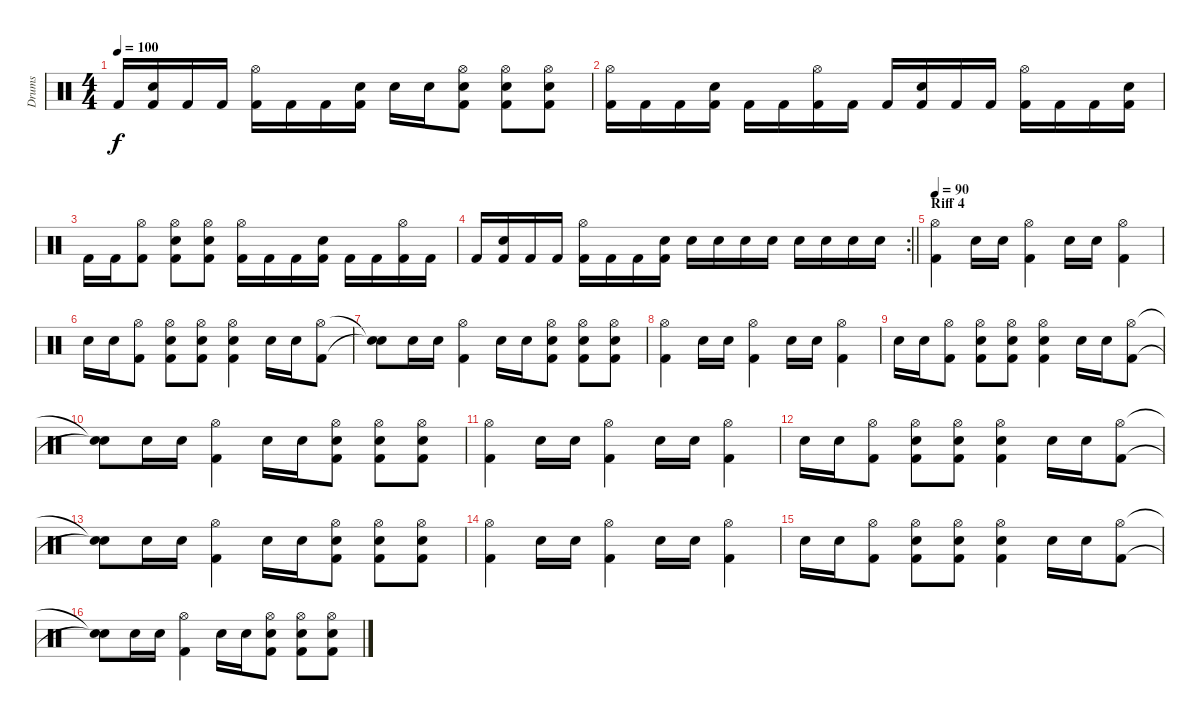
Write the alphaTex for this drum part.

\track ("Drums" "Drums") {instrument percussion}
\staff {score}
\articulation defaults
\ts (4 4)
\tempo 100
\clef neutral
\ks c "Kick (hit) 2".16{dy f}
("Snare (hit) 2" "Kick (hit) 2").16 "Kick (hit) 2".16 "Kick (hit) 2".16 ("Hi-Hat (open)" "Kick (hit) 2").16 "Kick (hit) 2".16 "Kick (hit) 2".16 ("Snare (hit) 2" "Kick (hit) 2").16 "Snare (hit) 2".16 "Snare (hit) 2".16 ("Hi-Hat (open)" "Snare (hit) 2" "Kick (hit) 2").8 ("Hi-Hat (open)" "Snare (hit) 2" "Kick (hit) 2").8 ("Hi-Hat (open)" "Snare (hit) 2" "Kick (hit) 2").8 |
("Hi-Hat (open)" "Kick (hit) 2").16 "Kick (hit) 2".16 "Kick (hit) 2".16 ("Snare (hit) 2" "Kick (hit) 2").16 "Kick (hit) 2".16 "Kick (hit) 2".16 ("Hi-Hat (open)" "Kick (hit) 2").16 "Kick (hit) 2".16 "Kick (hit) 2".16 ("Snare (hit) 2" "Kick (hit) 2").16 "Kick (hit) 2".16 "Kick (hit) 2".16 ("Hi-Hat (open)" "Kick (hit) 2").16 "Kick (hit) 2".16 "Kick (hit) 2".16 ("Snare (hit) 2" "Kick (hit) 2").16 |
"Kick (hit) 2".16 "Kick (hit) 2".16 ("Hi-Hat (open)" "Kick (hit) 2").8 ("Hi-Hat (open)" "Snare (hit) 2" "Kick (hit) 2").8 ("Hi-Hat (open)" "Snare (hit) 2" "Kick (hit) 2").8 ("Hi-Hat (open)" "Kick (hit) 2").16 "Kick (hit) 2".16 "Kick (hit) 2".16 ("Snare (hit) 2" "Kick (hit) 2").16 "Kick (hit) 2".16 "Kick (hit) 2".16 ("Hi-Hat (open)" "Kick (hit) 2").16 "Kick (hit) 2".16 |
\rc 2
\barLineRight lightlight "Kick (hit) 2".16
("Snare (hit) 2" "Kick (hit) 2").16 "Kick (hit) 2".16 "Kick (hit) 2".16 ("Hi-Hat (open)" "Kick (hit) 2").16 "Kick (hit) 2".16 "Kick (hit) 2".16 ("Snare (hit) 2" "Kick (hit) 2").16 "Snare (hit) 2".16 "Snare (hit) 2".16 "Snare (hit) 2".16 "Snare (hit) 2".16 "Snare (hit) 2".16 "Snare (hit) 2".16 "Snare (hit) 2".16 "Snare (hit) 2".16 |
\section ("" "Riff 4")
\tempo 90
("Hi-Hat (open)" "Kick (hit) 2").4 "Snare (hit) 2".16 "Snare (hit) 2".16 ("Hi-Hat (open)" "Kick (hit) 2").4 "Snare (hit) 2".16 "Snare (hit) 2".16 ("Hi-Hat (open)" "Kick (hit) 2").4 |
"Snare (hit) 2".16 "Snare (hit) 2".16 ("Hi-Hat (open)" "Kick (hit) 2").8 ("Hi-Hat (open)" "Snare (hit) 2" "Kick (hit) 2").8 ("Hi-Hat (open)" "Snare (hit) 2" "Kick (hit) 2").8 ("Hi-Hat (open)" "Snare (hit) 2" "Kick (hit) 2").4 "Snare (hit) 2".16 "Snare (hit) 2".16 ("Hi-Hat (open)" "Kick (hit) 2").8 |
("Snare (hit)"{t} "Snare (hit)"{t}).8 "Snare (hit) 2".16 "Snare (hit) 2".16 ("Hi-Hat (open)" "Kick (hit) 2").4 "Snare (hit) 2".16 "Snare (hit) 2".16 ("Hi-Hat (open)" "Snare (hit) 2" "Kick (hit) 2").8 ("Hi-Hat (open)" "Snare (hit) 2" "Kick (hit) 2").8 ("Hi-Hat (open)" "Snare (hit) 2" "Kick (hit) 2").8 |
("Hi-Hat (open)" "Kick (hit) 2").4 "Snare (hit) 2".16 "Snare (hit) 2".16 ("Hi-Hat (open)" "Kick (hit) 2").4 "Snare (hit) 2".16 "Snare (hit) 2".16 ("Hi-Hat (open)" "Kick (hit) 2").4 |
"Snare (hit) 2".16 "Snare (hit) 2".16 ("Hi-Hat (open)" "Kick (hit) 2").8 ("Hi-Hat (open)" "Snare (hit) 2" "Kick (hit) 2").8 ("Hi-Hat (open)" "Snare (hit) 2" "Kick (hit) 2").8 ("Hi-Hat (open)" "Snare (hit) 2" "Kick (hit) 2").4 "Snare (hit) 2".16 "Snare (hit) 2".16 ("Hi-Hat (open)" "Kick (hit) 2").8 |
("Snare (hit)"{t} "Snare (hit)"{t}).8 "Snare (hit) 2".16 "Snare (hit) 2".16 ("Hi-Hat (open)" "Kick (hit) 2").4 "Snare (hit) 2".16 "Snare (hit) 2".16 ("Hi-Hat (open)" "Snare (hit) 2" "Kick (hit) 2").8 ("Hi-Hat (open)" "Snare (hit) 2" "Kick (hit) 2").8 ("Hi-Hat (open)" "Snare (hit) 2" "Kick (hit) 2").8 |
("Hi-Hat (open)" "Kick (hit) 2").4 "Snare (hit) 2".16 "Snare (hit) 2".16 ("Hi-Hat (open)" "Kick (hit) 2").4 "Snare (hit) 2".16 "Snare (hit) 2".16 ("Hi-Hat (open)" "Kick (hit) 2").4 |
"Snare (hit) 2".16 "Snare (hit) 2".16 ("Hi-Hat (open)" "Kick (hit) 2").8 ("Hi-Hat (open)" "Snare (hit) 2" "Kick (hit) 2").8 ("Hi-Hat (open)" "Snare (hit) 2" "Kick (hit) 2").8 ("Hi-Hat (open)" "Snare (hit) 2" "Kick (hit) 2").4 "Snare (hit) 2".16 "Snare (hit) 2".16 ("Hi-Hat (open)" "Kick (hit) 2").8 |
("Snare (hit)"{t} "Snare (hit)"{t}).8 "Snare (hit) 2".16 "Snare (hit) 2".16 ("Hi-Hat (open)" "Kick (hit) 2").4 "Snare (hit) 2".16 "Snare (hit) 2".16 ("Hi-Hat (open)" "Snare (hit) 2" "Kick (hit) 2").8 ("Hi-Hat (open)" "Snare (hit) 2" "Kick (hit) 2").8 ("Hi-Hat (open)" "Snare (hit) 2" "Kick (hit) 2").8 |
("Hi-Hat (open)" "Kick (hit) 2").4 "Snare (hit) 2".16 "Snare (hit) 2".16 ("Hi-Hat (open)" "Kick (hit) 2").4 "Snare (hit) 2".16 "Snare (hit) 2".16 ("Hi-Hat (open)" "Kick (hit) 2").4 |
"Snare (hit) 2".16 "Snare (hit) 2".16 ("Hi-Hat (open)" "Kick (hit) 2").8 ("Hi-Hat (open)" "Snare (hit) 2" "Kick (hit) 2").8 ("Hi-Hat (open)" "Snare (hit) 2" "Kick (hit) 2").8 ("Hi-Hat (open)" "Snare (hit) 2" "Kick (hit) 2").4 "Snare (hit) 2".16 "Snare (hit) 2".16 ("Hi-Hat (open)" "Kick (hit) 2").8 |
("Snare (hit)"{t} "Snare (hit)"{t}).8 "Snare (hit) 2".16 "Snare (hit) 2".16 ("Hi-Hat (open)" "Kick (hit) 2").4 "Snare (hit) 2".16 "Snare (hit) 2".16 ("Hi-Hat (open)" "Snare (hit) 2" "Kick (hit) 2").8 ("Hi-Hat (open)" "Snare (hit) 2" "Kick (hit) 2").8 ("Hi-Hat (open)" "Snare (hit) 2" "Kick (hit) 2").8
